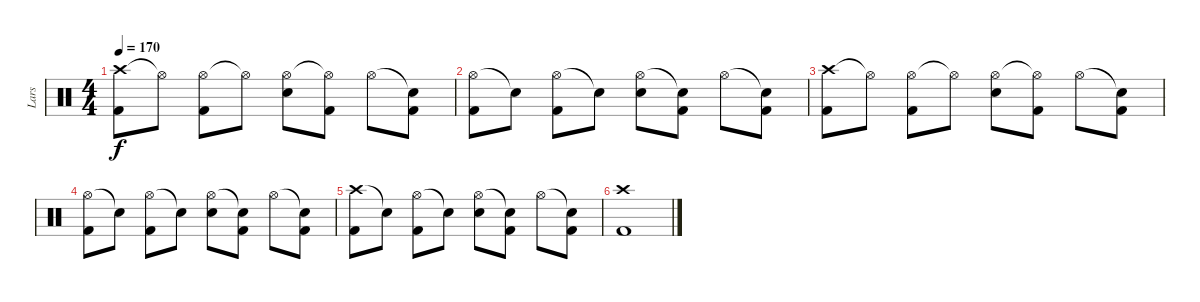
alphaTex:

\track ("Lars" "Lars") {instrument percussion}
\staff {score}
\articulation defaults
\ts (4 4)
\tempo 170
\clef neutral
\ks c
("Crash high (hit)" "Kick (hit) 2").8{dy f volume 2} "Hi-Hat (open)"{t}.8 ("Hi-Hat (open)" "Kick (hit) 2").8 "Hi-Hat (open)"{t}.8 ("Hi-Hat (open)" "Electric Snare (hit)").8 ("Hi-Hat (open)"{t} "Kick (hit) 2").8 "Hi-Hat (open)".8 ("Snare (hit)"{t} "Kick (hit) 2").8 |
("Hi-Hat (open)" "Kick (hit) 2").8 "Snare (hit)"{t}.8 ("Hi-Hat (open)" "Kick (hit) 2").8 "Snare (hit)"{t}.8 ("Hi-Hat (open)" "Electric Snare (hit)").8 ("Snare (hit)"{t} "Kick (hit) 2").8 "Hi-Hat (open)".8 ("Snare (hit)"{t} "Kick (hit) 2").8 |
("Crash high (hit)" "Kick (hit) 2").8 "Hi-Hat (open)"{t}.8 ("Hi-Hat (open)" "Kick (hit) 2").8 "Hi-Hat (open)"{t}.8 ("Hi-Hat (open)" "Electric Snare (hit)").8 ("Hi-Hat (open)"{t} "Kick (hit) 2").8 "Hi-Hat (open)".8 ("Snare (hit)"{t} "Kick (hit) 2").8 |
("Hi-Hat (open)" "Kick (hit) 2").8 "Snare (hit)"{t}.8 ("Hi-Hat (open)" "Kick (hit) 2").8 "Snare (hit)"{t}.8 ("Hi-Hat (open)" "Electric Snare (hit)").8 ("Snare (hit)"{t} "Kick (hit) 2").8 "Hi-Hat (open)".8 ("Snare (hit)"{t} "Kick (hit) 2").8 |
("Crash high (hit)" "Kick (hit) 2").8 "Snare (hit)"{t}.8 ("Hi-Hat (open)" "Kick (hit) 2").8 "Snare (hit)"{t}.8 ("Hi-Hat (open)" "Electric Snare (hit)").8 ("Snare (hit)"{t} "Kick (hit) 2").8 "Hi-Hat (open)".8 ("Snare (hit)"{t} "Kick (hit) 2").8 |
("Crash high (hit)" "Kick (hit) 2").1
